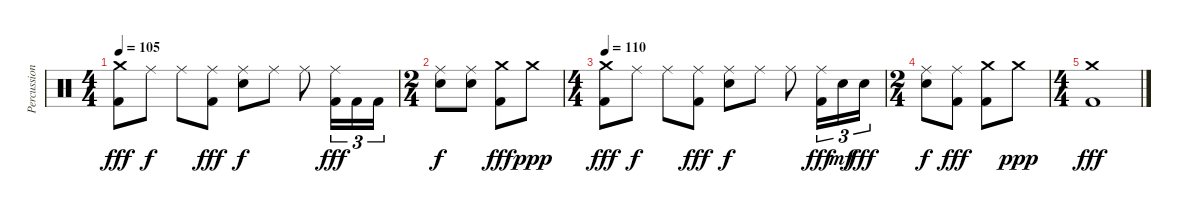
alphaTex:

\track ("Percussion" "Percussion") {instrument percussion}
\staff {score}
\articulation defaults
\ts (4 4)
\tempo 110
\tempo 105
\clef neutral
\ks c
("Crash medium (hit)" "Kick (hit) 2").8{dy fff} "Ride (middle)".8{dy f} "Ride (middle)".8 ("Ride (middle)" "Kick (hit) 2").8{dy fff} ("Ride (middle)" "Electric Snare (hit)").8{dy f} "Ride (middle)".8 "Ride (middle)".8 ("Ride (middle)" "Kick (hit) 2").16{tu (3 2) dy fff} "Kick (hit) 2".16{tu (3 2)} "Kick (hit) 2".16{tu (3 2)} |
\ts (2 4)
("Ride (middle)" "Electric Snare (hit)").8{dy f} ("Ride (middle)" "Electric Snare (hit)").8 ("Crash medium (hit)" "Kick (hit) 2").8{dy fff} "Crash medium (hit)".8{dy ppp} |
\ts (4 4)
\tempo 110
("Crash medium (hit)" "Kick (hit) 2").8{dy fff} "Ride (middle)".8{dy f} "Ride (middle)".8 ("Ride (middle)" "Kick (hit) 2").8{dy fff} ("Ride (middle)" "Electric Snare (hit)").8{dy f} "Ride (middle)".8 "Ride (middle)".8 ("Ride (middle)" "Kick (hit) 2").16{tu (3 2) dy fff} "Electric Snare (hit)".16{tu (3 2) dy mf} "Electric Snare (hit)".16{tu (3 2) dy fff} |
\ts (2 4)
("Ride (middle)" "Electric Snare (hit)").8{dy f} ("Ride (middle)" "Kick (hit) 2").8{dy fff} ("Crash medium (hit)" "Kick (hit) 2").8 "Crash medium (hit)".8{dy ppp} |
\ts (4 4)
("Crash medium (hit)" "Kick (hit) 2").1{dy fff}
